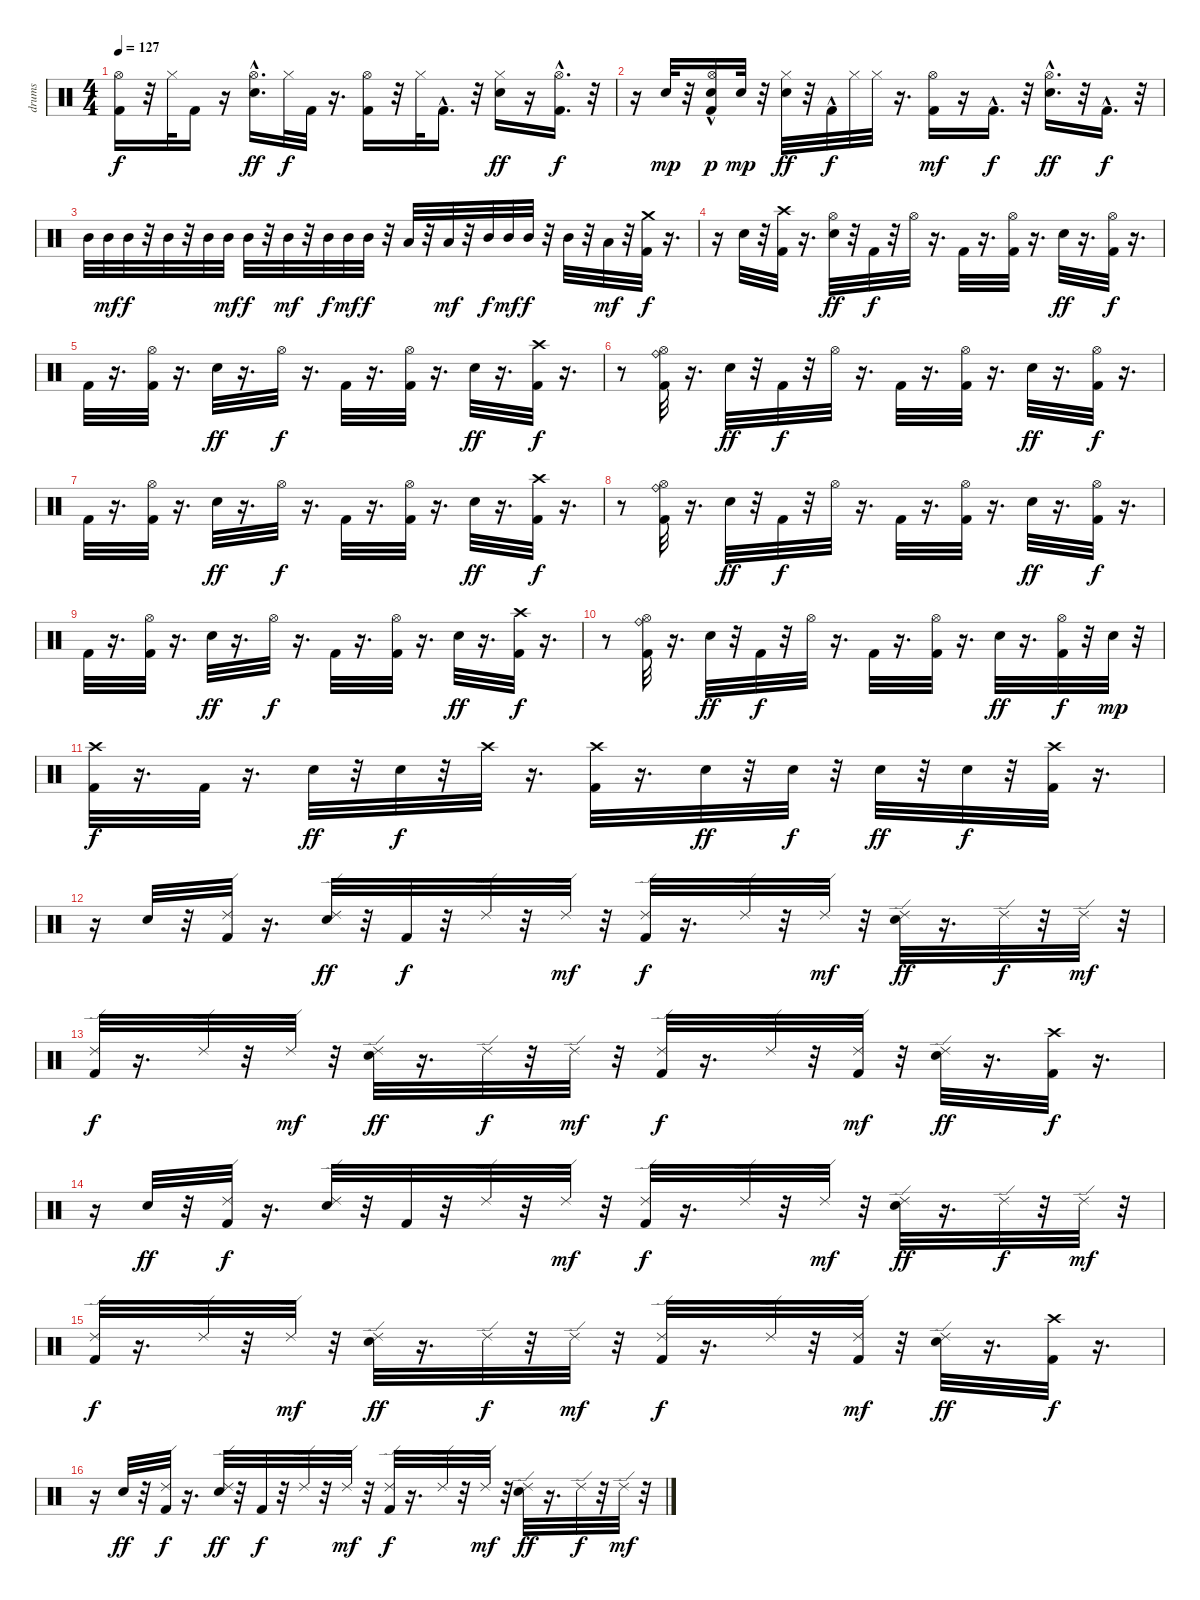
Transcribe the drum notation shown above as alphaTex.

\track ("drums" "drums") {instrument percussion}
\staff {score}
\articulation defaults
\ts (4 4)
\tempo 127
\clef neutral
\ks c
("Kick (hit) 2" "Hi-Hat (open)").16{dy f} r.32 "Hi-Hat (closed)".32 "Kick (hit) 2".16 r.16 ("Electric Snare (hit)"{hac} "Hi-Hat (open)").16{d dy ff} "Hi-Hat (closed)".32{dy f} "Kick (hit) 2".32 r.16{d} ("Kick (hit) 2" "Hi-Hat (open)").16 r.32 "Hi-Hat (closed)".32 "Kick (hit) 2"{hac}.16{d} r.32 ("Electric Snare (hit)" "Hi-Hat (closed)").16{dy ff} r.16 ("Kick (hit) 2"{hac} "Hi-Hat (open)").16{d dy f} r.32 |
r.16 "Snare (hit)".32{dy mp} r.32 ("Snare (hit)" "Kick (hit) 2"{hac} "Hi-Hat (open)").16{dy p} "Snare (hit)".32{dy mp} r.32 ("Electric Snare (hit)" "Hi-Hat (closed)").32{dy ff} r.32 "Kick (hit) 2"{hac}.32{dy f} "Hi-Hat (closed)".32 "Hi-Hat (closed)".32 r.16{d} ("Kick (hit) 2" "Hi-Hat (open)").16{dy mf} r.16 "Kick (hit) 2"{hac}.16{d dy f} r.32 ("Electric Snare (hit)"{hac} "Hi-Hat (open)").16{d dy ff} r.32 "Kick (hit) 2"{hac}.16{d dy f} r.32 |
"Mid Tom (hit)".32 "Mid Tom (hit)".32{dy mf} "Mid Tom (hit)".32{dy f} r.32 "Mid Tom (hit)".32 r.32 "Mid Tom (hit)".32 "Mid Tom (hit)".32{dy mf} "Mid Tom (hit)".32{dy f} r.32 "Mid Tom (hit)".32{dy mf} r.32 "Mid Tom (hit)".32{dy f} "Mid Tom (hit)".32{dy mf} "Mid Tom (hit)".32{dy f} r.32 "Low Tom (hit)".32 r.32 "Low Tom (hit)".32{dy mf} r.32 "Mid Tom (hit)".32{dy f} "Mid Tom (hit)".32{dy mf} "Mid Tom (hit)".32{dy f} r.32 "Mid Tom (hit)".32 r.32 "Low Tom (hit)".32{dy mf} r.32 ("Kick (hit) 2" "Crash medium (hit)").32{dy f} r.16{d} |
r.16 "Electric Snare (hit)".32 r.32 ("Crash high (hit)" "Kick (hit) 2").32 r.16{d} ("Hi-Hat (open)" "Electric Snare (hit)").32{dy ff} r.32 "Kick (hit) 2".32{dy f} r.32 "Hi-Hat (open)".32 r.16{d} "Kick (hit) 2".32 r.16{d} ("Hi-Hat (open)" "Kick (hit) 2").32 r.16{d} "Electric Snare (hit)".32{dy ff} r.16{d} ("Hi-Hat (open)" "Kick (hit) 2").32{dy f} r.16{d} |
"Kick (hit) 2".32 r.16{d} ("Hi-Hat (open)" "Kick (hit) 2").32 r.16{d} "Electric Snare (hit)".32{dy ff} r.16{d} "Hi-Hat (open)".32{dy f} r.16{d} "Kick (hit) 2".32 r.16{d} ("Hi-Hat (open)" "Kick (hit) 2").32 r.16{d} "Electric Snare (hit)".32{dy ff} r.16{d} ("Crash high (hit)" "Kick (hit) 2").32{dy f} r.16{d} |
r.8 ("Ride (bell)" "Kick (hit) 2" "Hi-Hat (open)").32 r.16{d} "Electric Snare (hit)".32{dy ff} r.32 "Kick (hit) 2".32{dy f} r.32 "Hi-Hat (open)".32 r.16{d} "Kick (hit) 2".32 r.16{d} ("Kick (hit) 2" "Hi-Hat (open)").32 r.16{d} "Electric Snare (hit)".32{dy ff} r.16{d} ("Kick (hit) 2" "Hi-Hat (open)").32{dy f} r.16{d} |
"Kick (hit) 2".32 r.16{d} ("Kick (hit) 2" "Hi-Hat (open)").32 r.16{d} "Electric Snare (hit)".32{dy ff} r.16{d} "Hi-Hat (open)".32{dy f} r.16{d} "Kick (hit) 2".32 r.16{d} ("Kick (hit) 2" "Hi-Hat (open)").32 r.16{d} "Electric Snare (hit)".32{dy ff} r.16{d} ("Crash high (hit)" "Kick (hit) 2").32{dy f} r.16{d} |
r.8 ("Kick (hit) 2" "Ride (bell)" "Hi-Hat (open)").32 r.16{d} "Electric Snare (hit)".32{dy ff} r.32 "Kick (hit) 2".32{dy f} r.32 "Hi-Hat (open)".32 r.16{d} "Kick (hit) 2".32 r.16{d} ("Kick (hit) 2" "Hi-Hat (open)").32 r.16{d} "Electric Snare (hit)".32{dy ff} r.16{d} ("Kick (hit) 2" "Hi-Hat (open)").32{dy f} r.16{d} |
"Kick (hit) 2".32 r.16{d} ("Kick (hit) 2" "Hi-Hat (open)").32 r.16{d} "Electric Snare (hit)".32{dy ff} r.16{d} "Hi-Hat (open)".32{dy f} r.16{d} "Kick (hit) 2".32 r.16{d} ("Kick (hit) 2" "Hi-Hat (open)").32 r.16{d} "Electric Snare (hit)".32{dy ff} r.16{d} ("Crash high (hit)" "Kick (hit) 2").32{dy f} r.16{d} |
r.8 ("Ride (bell)" "Kick (hit) 2" "Hi-Hat (open)").32 r.16{d} "Electric Snare (hit)".32{dy ff} r.32 "Kick (hit) 2".32{dy f} r.32 "Hi-Hat (open)".32 r.16{d} "Kick (hit) 2".32 r.16{d} ("Kick (hit) 2" "Hi-Hat (open)").32 r.16{d} "Electric Snare (hit)".32{dy ff} r.16{d} ("Kick (hit) 2" "Hi-Hat (open)").32{dy f} r.32 "Electric Snare (hit)".32{dy mp} r.32 |
("Crash high (hit)" "Kick (hit) 2").32{dy f} r.16{d} "Kick (hit) 2".32 r.16{d} "Electric Snare (hit)".32{dy ff} r.32 "Electric Snare (hit)".32{dy f} r.32 "Crash high (hit)".32 r.16{d} ("Crash high (hit)" "Kick (hit) 2").32 r.16{d} "Electric Snare (hit)".32{dy ff} r.32 "Electric Snare (hit)".32{dy f} r.32 "Electric Snare (hit)".32{dy ff} r.32 "Electric Snare (hit)".32{dy f} r.32 ("Crash high (hit)" "Kick (hit) 2").32 r.16{d} |
r.16 "Electric Snare (hit)".32 r.32 ("Ride (edge) 2" "Kick (hit) 2").32 r.16{d} ("Ride (edge) 2" "Electric Snare (hit)").32{dy ff} r.32 "Kick (hit) 2".32{dy f} r.32 "Ride (edge) 2".32 r.32 "Ride (edge) 2".32{dy mf} r.32 ("Ride (edge) 2" "Kick (hit) 2").32{dy f} r.16{d} "Ride (edge) 2".32 r.32 "Ride (edge) 2".32{dy mf} r.32 ("Ride (edge) 2" "Electric Snare (hit)").32{dy ff} r.16{d} "Ride (edge) 2".32{dy f} r.32 "Ride (edge) 2".32{dy mf} r.32 |
("Ride (edge) 2" "Kick (hit) 2").32{dy f} r.16{d} "Ride (edge) 2".32 r.32 "Ride (edge) 2".32{dy mf} r.32 ("Ride (edge) 2" "Electric Snare (hit)").32{dy ff} r.16{d} "Ride (edge) 2".32{dy f} r.32 "Ride (edge) 2".32{dy mf} r.32 ("Ride (edge) 2" "Kick (hit) 2").32{dy f} r.16{d} "Ride (edge) 2".32 r.32 ("Ride (edge) 2" "Kick (hit) 2").32{dy mf} r.32 ("Ride (edge) 2" "Electric Snare (hit)").32{dy ff} r.16{d} ("Crash high (hit)" "Kick (hit) 2").32{dy f} r.16{d} |
r.16 "Electric Snare (hit)".32{dy ff} r.32 ("Ride (edge) 2" "Kick (hit) 2").32{dy f} r.16{d} ("Ride (edge) 2" "Electric Snare (hit)").32 r.32 "Kick (hit) 2".32 r.32 "Ride (edge) 2".32 r.32 "Ride (edge) 2".32{dy mf} r.32 ("Ride (edge) 2" "Kick (hit) 2").32{dy f} r.16{d} "Ride (edge) 2".32 r.32 "Ride (edge) 2".32{dy mf} r.32 ("Ride (edge) 2" "Electric Snare (hit)").32{dy ff} r.16{d} "Ride (edge) 2".32{dy f} r.32 "Ride (edge) 2".32{dy mf} r.32 |
("Ride (edge) 2" "Kick (hit) 2").32{dy f} r.16{d} "Ride (edge) 2".32 r.32 "Ride (edge) 2".32{dy mf} r.32 ("Ride (edge) 2" "Electric Snare (hit)").32{dy ff} r.16{d} "Ride (edge) 2".32{dy f} r.32 "Ride (edge) 2".32{dy mf} r.32 ("Ride (edge) 2" "Kick (hit) 2").32{dy f} r.16{d} "Ride (edge) 2".32 r.32 ("Ride (edge) 2" "Kick (hit) 2").32{dy mf} r.32 ("Ride (edge) 2" "Electric Snare (hit)").32{dy ff} r.16{d} ("Crash high (hit)" "Kick (hit) 2").32{dy f} r.16{d} |
r.16 "Electric Snare (hit)".32{dy ff} r.32 ("Ride (edge) 2" "Kick (hit) 2").32{dy f} r.16{d} ("Ride (edge) 2" "Electric Snare (hit)").32{dy ff} r.32 "Kick (hit) 2".32{dy f} r.32 "Ride (edge) 2".32 r.32 "Ride (edge) 2".32{dy mf} r.32 ("Ride (edge) 2" "Kick (hit) 2").32{dy f} r.16{d} "Ride (edge) 2".32 r.32 "Ride (edge) 2".32{dy mf} r.32 ("Ride (edge) 2" "Electric Snare (hit)").32{dy ff} r.16{d} "Ride (edge) 2".32{dy f} r.32 "Ride (edge) 2".32{dy mf} r.32
